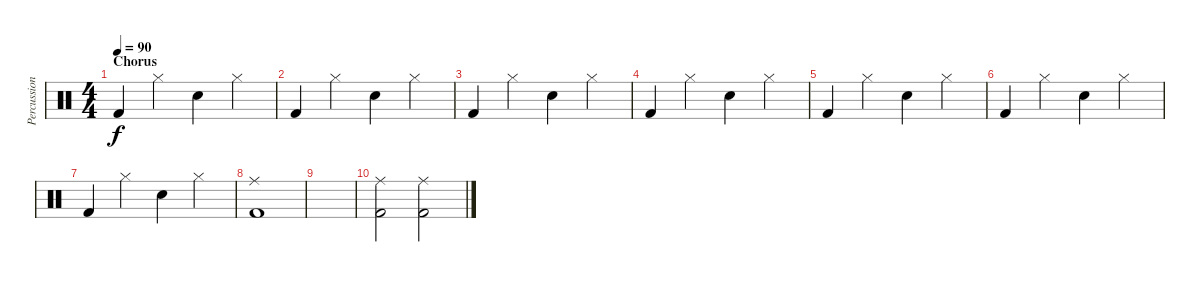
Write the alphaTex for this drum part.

\track ("Percussion" "Percussion") {instrument percussion}
\staff {score}
\articulation defaults
\ts (4 4)
\section ("" "Chorus")
\tempo 90
\clef neutral
\ks c "Kick (hit) 2".4{dy f} "Hi-Hat (closed)".4 "Snare (hit) 2".4 "Hi-Hat (closed)".4
|
"Kick (hit) 2".4 "Hi-Hat (closed)".4 "Snare (hit) 2".4 "Hi-Hat (closed)".4 |
"Kick (hit) 2".4 "Hi-Hat (closed)".4 "Snare (hit) 2".4 "Hi-Hat (closed)".4 |
"Kick (hit) 2".4 "Hi-Hat (closed)".4 "Snare (hit) 2".4 "Hi-Hat (closed)".4 |
"Kick (hit) 2".4 "Hi-Hat (closed)".4 "Snare (hit) 2".4 "Hi-Hat (closed)".4 |
"Kick (hit) 2".4 "Hi-Hat (closed)".4 "Snare (hit) 2".4 "Hi-Hat (closed)".4 |
"Kick (hit) 2".4 "Hi-Hat (closed)".4 "Snare (hit) 2".4 "Hi-Hat (closed)".4 |
("Ride (middle)" "Kick (hit) 2").1 |
|
("Ride (middle)" "Kick (hit) 2").2 ("Ride (middle)" "Kick (hit) 2").2
